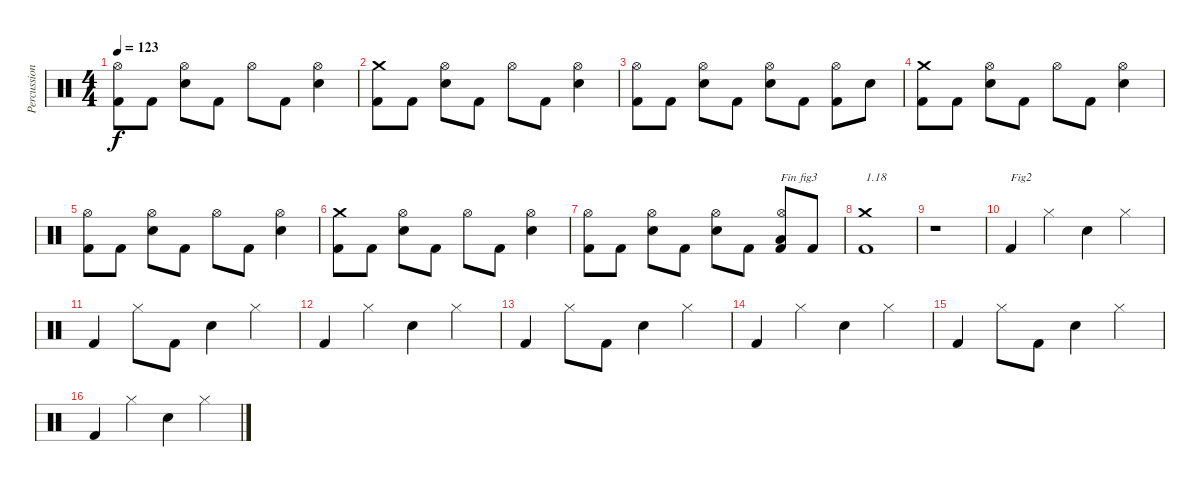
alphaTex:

\track ("Percussions" "Percussion") {instrument percussion}
\staff {score}
\articulation defaults
\ts (4 4)
\tempo 123
\clef neutral
\ks c
("Kick (hit) 2" "Hi-Hat (open)").8{dy f} "Kick (hit) 2".8 ("Electric Snare (hit)" "Hi-Hat (open)").8 "Kick (hit) 2".8 "Hi-Hat (open)".8 "Kick (hit) 2".8 ("Electric Snare (hit)" "Hi-Hat (open)").4 |
("Kick (hit) 2" "Crash medium (hit)").8 "Kick (hit) 2".8 ("Electric Snare (hit)" "Hi-Hat (open)").8 "Kick (hit) 2".8 "Hi-Hat (open)".8 "Kick (hit) 2".8 ("Electric Snare (hit)" "Hi-Hat (open)").4 |
("Kick (hit) 2" "Hi-Hat (open)").8 "Kick (hit) 2".8 ("Electric Snare (hit)" "Hi-Hat (open)").8 "Kick (hit) 2".8 ("Electric Snare (hit)" "Hi-Hat (open)").8 "Kick (hit) 2".8 ("Kick (hit) 2" "Hi-Hat (open)").8 "Electric Snare (hit)".8 |
("Kick (hit) 2" "Crash medium (hit)").8 "Kick (hit) 2".8 ("Electric Snare (hit)" "Hi-Hat (open)").8 "Kick (hit) 2".8 "Hi-Hat (open)".8 "Kick (hit) 2".8 ("Electric Snare (hit)" "Hi-Hat (open)").4 |
("Kick (hit) 2" "Hi-Hat (open)").8 "Kick (hit) 2".8 ("Electric Snare (hit)" "Hi-Hat (open)").8 "Kick (hit) 2".8 "Hi-Hat (open)".8 "Kick (hit) 2".8 ("Electric Snare (hit)" "Hi-Hat (open)").4 |
("Kick (hit) 2" "Crash medium (hit)").8 "Kick (hit) 2".8 ("Electric Snare (hit)" "Hi-Hat (open)").8 "Kick (hit) 2".8 "Hi-Hat (open)".8 "Kick (hit) 2".8 ("Electric Snare (hit)" "Hi-Hat (open)").4 |
("Kick (hit) 2" "Hi-Hat (open)").8 "Kick (hit) 2".8 ("Electric Snare (hit)" "Hi-Hat (open)").8 "Kick (hit) 2".8 ("Electric Snare (hit)" "Hi-Hat (open)").8 "Kick (hit) 2".8 ("Kick (hit) 2" "Low Floor Tom (hit)" "Hi-Hat (open)").8{txt "Fin fig3"} "Kick (hit) 2".8 |
("Kick (hit) 2" "Crash medium (hit)").1{txt "1.18"} |
r.1 |
"Kick (hit) 2".4{txt "Fig2"} "Hi-Hat (closed)".4 "Electric Snare (hit)".4 "Hi-Hat (closed)".4 |
"Kick (hit) 2".4 "Hi-Hat (closed)".8 "Kick (hit) 2".8 "Electric Snare (hit)".4 "Hi-Hat (closed)".4 |
"Kick (hit) 2".4 "Hi-Hat (closed)".4 "Electric Snare (hit)".4 "Hi-Hat (closed)".4 |
"Kick (hit) 2".4 "Hi-Hat (closed)".8 "Kick (hit) 2".8 "Electric Snare (hit)".4 "Hi-Hat (closed)".4 |
"Kick (hit) 2".4 "Hi-Hat (closed)".4 "Electric Snare (hit)".4 "Hi-Hat (closed)".4 |
"Kick (hit) 2".4 "Hi-Hat (closed)".8 "Kick (hit) 2".8 "Electric Snare (hit)".4 "Hi-Hat (closed)".4 |
"Kick (hit) 2".4 "Hi-Hat (closed)".4 "Electric Snare (hit)".4 "Hi-Hat (closed)".4
